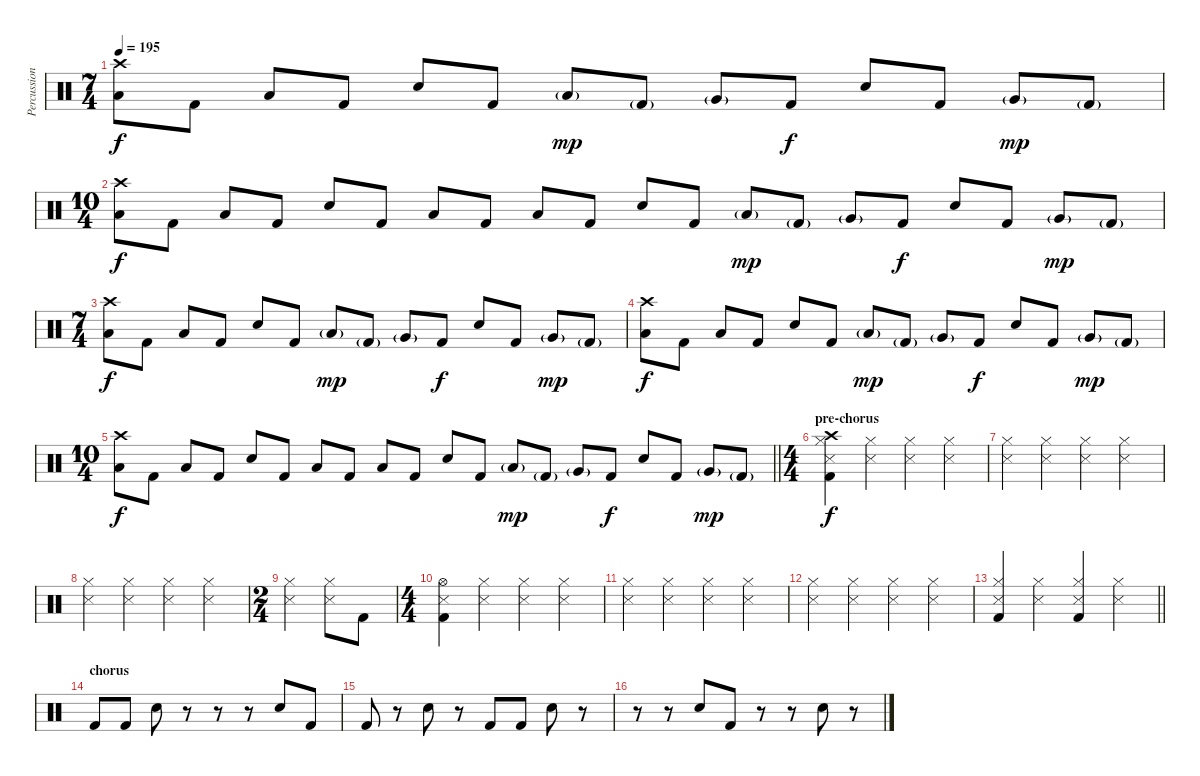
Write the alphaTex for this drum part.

\track ("Percussion" "Percussion") {instrument percussion}
\staff {score}
\articulation defaults
\ts (7 4)
\tempo 195
\clef neutral
\ks c
("Crash high (hit)" "Low Tom (hit)").8{dy f} "Kick (hit) 2".8 "Low Tom (hit)".8 "Kick (hit) 2".8 "Snare (hit) 2".8 "Kick (hit) 2".8 "Low Tom (hit)"{g}.8{dy mp} "Kick (hit) 2"{g}.8 "Very Low Tom (hit)"{g}.8 "Kick (hit) 2".8{dy f} "Snare (hit) 2".8 "Kick (hit) 2".8 "Very Low Tom (hit)"{g}.8{dy mp} "Kick (hit) 2"{g}.8 |
\ts (10 4)
("Crash high (hit)" "Low Tom (hit)").8{dy f} "Kick (hit) 2".8 "Low Tom (hit)".8 "Kick (hit) 2".8 "Snare (hit) 2".8 "Kick (hit) 2".8 "Low Tom (hit)".8 "Kick (hit) 2".8 "Low Tom (hit)".8 "Kick (hit) 2".8 "Snare (hit) 2".8 "Kick (hit) 2".8 "Low Tom (hit)"{g}.8{dy mp} "Kick (hit) 2"{g}.8 "Very Low Tom (hit)"{g}.8 "Kick (hit) 2".8{dy f} "Snare (hit) 2".8 "Kick (hit) 2".8 "Very Low Tom (hit)"{g}.8{dy mp} "Kick (hit) 2"{g}.8 |
\ts (7 4)
("Crash high (hit)" "Low Tom (hit)").8{dy f} "Kick (hit) 2".8 "Low Tom (hit)".8 "Kick (hit) 2".8 "Snare (hit) 2".8 "Kick (hit) 2".8 "Low Tom (hit)"{g}.8{dy mp} "Kick (hit) 2"{g}.8 "Very Low Tom (hit)"{g}.8 "Kick (hit) 2".8{dy f} "Snare (hit) 2".8 "Kick (hit) 2".8 "Very Low Tom (hit)"{g}.8{dy mp} "Kick (hit) 2"{g}.8 |
("Crash high (hit)" "Low Tom (hit)").8{dy f} "Kick (hit) 2".8 "Low Tom (hit)".8 "Kick (hit) 2".8 "Snare (hit) 2".8 "Kick (hit) 2".8 "Low Tom (hit)"{g}.8{dy mp} "Kick (hit) 2"{g}.8 "Very Low Tom (hit)"{g}.8 "Kick (hit) 2".8{dy f} "Snare (hit) 2".8 "Kick (hit) 2".8 "Very Low Tom (hit)"{g}.8{dy mp} "Kick (hit) 2"{g}.8 |
\ts (10 4)
\barLineRight lightlight
("Crash high (hit)" "Low Tom (hit)").8{dy f} "Kick (hit) 2".8 "Low Tom (hit)".8 "Kick (hit) 2".8 "Snare (hit) 2".8 "Kick (hit) 2".8 "Low Tom (hit)".8 "Kick (hit) 2".8 "Low Tom (hit)".8 "Kick (hit) 2".8 "Snare (hit) 2".8 "Kick (hit) 2".8 "Low Tom (hit)"{g}.8{dy mp} "Kick (hit) 2"{g}.8 "Very Low Tom (hit)"{g}.8 "Kick (hit) 2".8{dy f} "Snare (hit) 2".8 "Kick (hit) 2".8 "Very Low Tom (hit)"{g}.8{dy mp} "Kick (hit) 2"{g}.8 |
\ts (4 4)
\section ("" "pre-chorus")
("Crash high (hit)" "Hi-Hat (closed)" "Snare (side stick) 3" "Kick (hit) 2").4{dy f} ("Hi-Hat (closed)" "Snare (side stick) 3").4 ("Hi-Hat (closed)" "Snare (side stick) 3").4 ("Hi-Hat (closed)" "Snare (side stick) 3").4 |
("Hi-Hat (closed)" "Snare (side stick) 3").4 ("Hi-Hat (closed)" "Snare (side stick) 3").4 ("Hi-Hat (closed)" "Snare (side stick) 3").4 ("Hi-Hat (closed)" "Snare (side stick) 3").4 |
("Hi-Hat (closed)" "Snare (side stick) 3").4 ("Hi-Hat (closed)" "Snare (side stick) 3").4 ("Hi-Hat (closed)" "Snare (side stick) 3").4 ("Hi-Hat (closed)" "Snare (side stick) 3").4 |
\ts (2 4)
("Hi-Hat (closed)" "Snare (side stick) 3").4 ("Hi-Hat (closed)" "Snare (side stick) 3").8 "Kick (hit) 2".8 |
\ts (4 4)
("Hi-Hat (open)" "Snare (side stick) 3" "Kick (hit) 2").4 ("Hi-Hat (closed)" "Snare (side stick) 3").4 ("Hi-Hat (closed)" "Snare (side stick) 3").4 ("Hi-Hat (closed)" "Snare (side stick) 3").4 |
("Hi-Hat (closed)" "Snare (side stick) 3").4 ("Hi-Hat (closed)" "Snare (side stick) 3").4 ("Hi-Hat (closed)" "Snare (side stick) 3").4 ("Hi-Hat (closed)" "Snare (side stick) 3").4 |
("Hi-Hat (closed)" "Snare (side stick) 3").4 ("Hi-Hat (closed)" "Snare (side stick) 3").4 ("Hi-Hat (closed)" "Snare (side stick) 3").4 ("Hi-Hat (closed)" "Snare (side stick) 3").4 |
\barLineRight lightlight
("Hi-Hat (closed)" "Snare (side stick) 3" "Kick (hit) 2").4 ("Hi-Hat (closed)" "Snare (side stick) 3").4 ("Hi-Hat (closed)" "Snare (side stick) 3" "Kick (hit) 2").4 ("Hi-Hat (closed)" "Snare (side stick) 3").4 |
\section ("" "chorus")
"Kick (hit) 2".8 "Kick (hit) 2".8 "Snare (hit) 2".8 r.8 r.8 r.8 "Snare (hit) 2".8 "Kick (hit) 2".8 |
"Kick (hit) 2".8 r.8 "Snare (hit) 2".8 r.8 "Kick (hit) 2".8 "Kick (hit) 2".8 "Snare (hit) 2".8 r.8 |
r.8 r.8 "Snare (hit) 2".8 "Kick (hit) 2".8 r.8 r.8 "Snare (hit) 2".8 r.8
